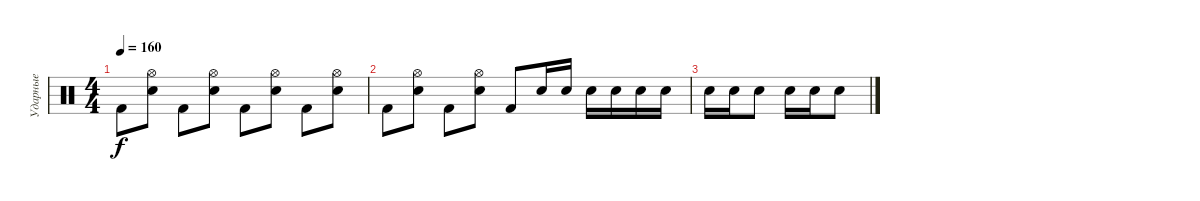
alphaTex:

\track ("Ударные" "Ударные") {instrument percussion}
\staff {score}
\articulation defaults
\ts (4 4)
\tempo 160
\clef neutral
\ks c "Kick (hit) 2".8{dy f}
("Hi-Hat (open)" "Electric Snare (hit)").8 "Kick (hit) 2".8 ("Hi-Hat (open)" "Electric Snare (hit)").8 "Kick (hit) 2".8 ("Hi-Hat (open)" "Electric Snare (hit)").8 "Kick (hit) 2".8 ("Hi-Hat (open)" "Electric Snare (hit)").8 |
"Kick (hit) 2".8 ("Hi-Hat (open)" "Electric Snare (hit)").8 "Kick (hit) 2".8 ("Hi-Hat (open)" "Electric Snare (hit)").8 "Kick (hit) 2".8 "Electric Snare (hit)".16 "Electric Snare (hit)".16 "Electric Snare (hit)".16 "Electric Snare (hit)".16 "Electric Snare (hit)".16 "Electric Snare (hit)".16 |
"Electric Snare (hit)".16 "Electric Snare (hit)".16 "Electric Snare (hit)".8 "Electric Snare (hit)".16 "Electric Snare (hit)".16 "Electric Snare (hit)".8
